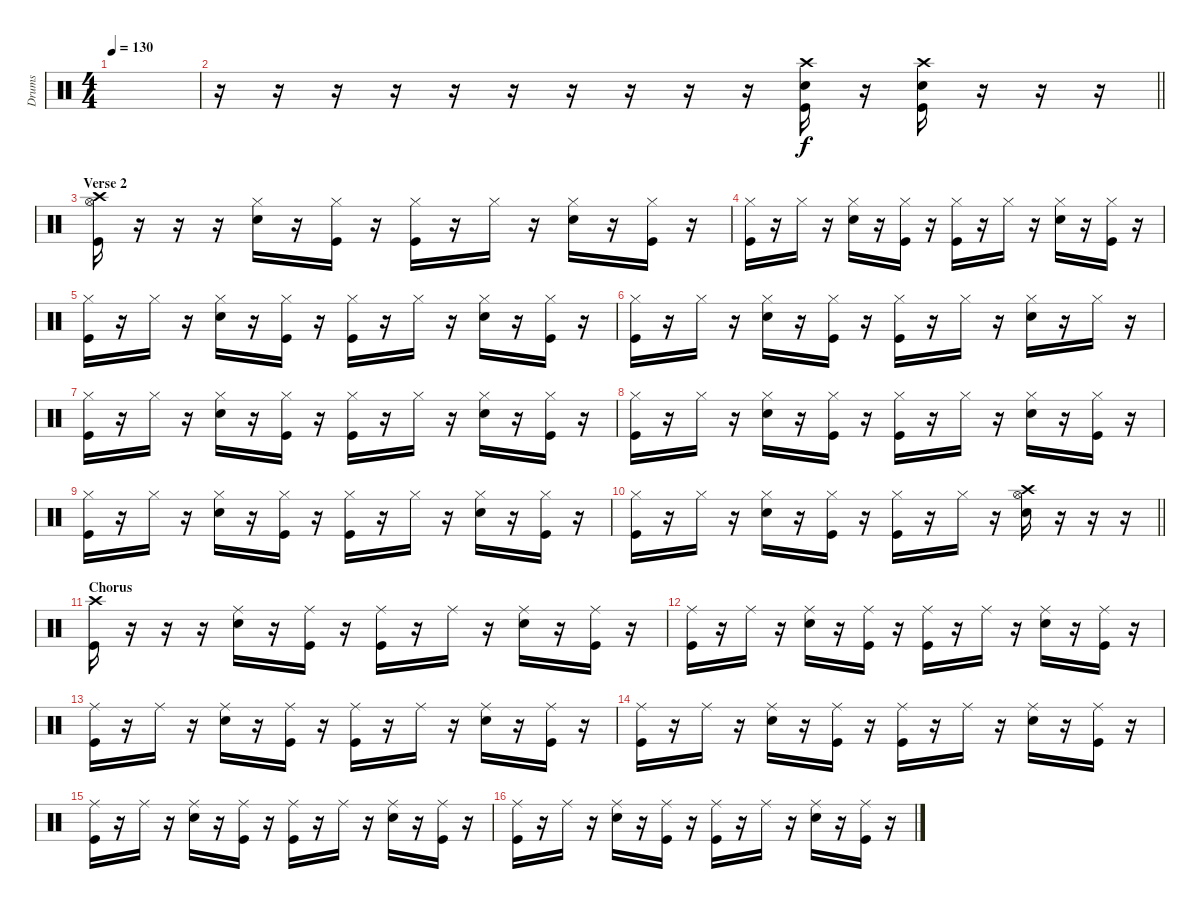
\track ("Drums" "Drums") {instrument percussion}
\staff {score}
\articulation defaults
\ts (4 4)
\tempo 130
\clef neutral
\ks c
|
\barLineRight lightlight
r.16 r.16 r.16 r.16 r.16 r.16 r.16 r.16 r.16 r.16 ("Snare (hit) 2" "Kick (hit)" "Crash high (hit)").16 r.16 ("Snare (hit) 2" "Kick (hit)" "Crash high (hit)").16 r.16 r.16 r.16 |
\section ("" "Verse 2")
("Hi-Hat (open)" "Kick (hit)" "Crash high (hit)").16 r.16 r.16 r.16 ("Hi-Hat (closed)" "Snare (hit) 2").16 r.16 ("Hi-Hat (closed)" "Kick (hit)").16 r.16 ("Hi-Hat (closed)" "Kick (hit)").16 r.16 "Hi-Hat (closed)".16 r.16 ("Hi-Hat (closed)" "Snare (hit) 2").16 r.16 ("Hi-Hat (closed)" "Kick (hit)").16 r.16 |
("Hi-Hat (closed)" "Kick (hit)").16 r.16 "Hi-Hat (closed)".16 r.16 ("Hi-Hat (closed)" "Snare (hit) 2").16 r.16 ("Hi-Hat (closed)" "Kick (hit)").16 r.16 ("Hi-Hat (closed)" "Kick (hit)").16 r.16 "Hi-Hat (closed)".16 r.16 ("Hi-Hat (closed)" "Snare (hit) 2").16 r.16 ("Hi-Hat (closed)" "Kick (hit)").16 r.16 |
("Hi-Hat (closed)" "Kick (hit)").16 r.16 "Hi-Hat (closed)".16 r.16 ("Hi-Hat (closed)" "Snare (hit) 2").16 r.16 ("Hi-Hat (closed)" "Kick (hit)").16 r.16 ("Hi-Hat (closed)" "Kick (hit)").16 r.16 "Hi-Hat (closed)".16 r.16 ("Hi-Hat (closed)" "Snare (hit) 2").16 r.16 ("Hi-Hat (closed)" "Kick (hit)").16 r.16 |
("Hi-Hat (closed)" "Kick (hit)").16 r.16 "Hi-Hat (closed)".16 r.16 ("Hi-Hat (closed)" "Snare (hit) 2").16 r.16 ("Hi-Hat (closed)" "Kick (hit)").16 r.16 ("Hi-Hat (closed)" "Kick (hit)").16 r.16 "Hi-Hat (closed)".16 r.16 ("Hi-Hat (closed)" "Snare (hit) 2").16 r.16 "Hi-Hat (closed)".16 r.16 |
("Hi-Hat (closed)" "Kick (hit)").16 r.16 "Hi-Hat (closed)".16 r.16 ("Hi-Hat (closed)" "Snare (hit) 2").16 r.16 ("Hi-Hat (closed)" "Kick (hit)").16 r.16 ("Hi-Hat (closed)" "Kick (hit)").16 r.16 "Hi-Hat (closed)".16 r.16 ("Hi-Hat (closed)" "Snare (hit) 2").16 r.16 ("Hi-Hat (closed)" "Kick (hit)").16 r.16 |
("Hi-Hat (closed)" "Kick (hit)").16 r.16 "Hi-Hat (closed)".16 r.16 ("Hi-Hat (closed)" "Snare (hit) 2").16 r.16 ("Hi-Hat (closed)" "Kick (hit)").16 r.16 ("Hi-Hat (closed)" "Kick (hit)").16 r.16 "Hi-Hat (closed)".16 r.16 ("Hi-Hat (closed)" "Snare (hit) 2").16 r.16 ("Hi-Hat (closed)" "Kick (hit)").16 r.16 |
("Hi-Hat (closed)" "Kick (hit)").16 r.16 "Hi-Hat (closed)".16 r.16 ("Hi-Hat (closed)" "Snare (hit) 2").16 r.16 ("Hi-Hat (closed)" "Kick (hit)").16 r.16 ("Hi-Hat (closed)" "Kick (hit)").16 r.16 "Hi-Hat (closed)".16 r.16 ("Hi-Hat (closed)" "Snare (hit) 2").16 r.16 ("Hi-Hat (closed)" "Kick (hit)").16 r.16 |
\barLineRight lightlight
("Hi-Hat (closed)" "Kick (hit)").16 r.16 "Hi-Hat (closed)".16 r.16 ("Hi-Hat (closed)" "Snare (hit) 2").16 r.16 ("Hi-Hat (closed)" "Kick (hit)").16 r.16 ("Hi-Hat (closed)" "Kick (hit)").16 r.16 "Hi-Hat (closed)".16 r.16 ("Hi-Hat (open)" "Snare (hit) 2" "Crash high (hit)").16 r.16 r.16 r.16 |
\section ("" "Chorus")
("Kick (hit)" "Crash high (hit)").16 r.16 r.16 r.16 ("Snare (hit) 2" "Ride (middle)").16 r.16 ("Kick (hit)" "Ride (middle)").16 r.16 ("Kick (hit)" "Ride (middle)").16 r.16 "Ride (middle)".16 r.16 ("Snare (hit) 2" "Ride (middle)").16 r.16 ("Kick (hit)" "Ride (middle)").16 r.16 |
("Kick (hit)" "Ride (middle)").16 r.16 "Ride (middle)".16 r.16 ("Snare (hit) 2" "Ride (middle)").16 r.16 ("Kick (hit)" "Ride (middle)").16 r.16 ("Kick (hit)" "Ride (middle)").16 r.16 "Ride (middle)".16 r.16 ("Snare (hit) 2" "Ride (middle)").16 r.16 ("Kick (hit)" "Ride (middle)").16 r.16 |
("Kick (hit)" "Ride (middle)").16 r.16 "Ride (middle)".16 r.16 ("Snare (hit) 2" "Ride (middle)").16 r.16 ("Kick (hit)" "Ride (middle)").16 r.16 ("Kick (hit)" "Ride (middle)").16 r.16 "Ride (middle)".16 r.16 ("Snare (hit) 2" "Ride (middle)").16 r.16 ("Kick (hit)" "Ride (middle)").16 r.16 |
("Kick (hit)" "Ride (middle)").16 r.16 "Ride (middle)".16 r.16 ("Snare (hit) 2" "Ride (middle)").16 r.16 ("Kick (hit)" "Ride (middle)").16 r.16 ("Kick (hit)" "Ride (middle)").16 r.16 "Ride (middle)".16 r.16 ("Snare (hit) 2" "Ride (middle)").16 r.16 ("Kick (hit)" "Ride (middle)").16 r.16 |
("Kick (hit)" "Ride (middle)").16 r.16 "Ride (middle)".16 r.16 ("Snare (hit) 2" "Ride (middle)").16 r.16 ("Kick (hit)" "Ride (middle)").16 r.16 ("Kick (hit)" "Ride (middle)").16 r.16 "Ride (middle)".16 r.16 ("Snare (hit) 2" "Ride (middle)").16 r.16 ("Kick (hit)" "Ride (middle)").16 r.16 |
("Kick (hit)" "Ride (middle)").16 r.16 "Ride (middle)".16 r.16 ("Snare (hit) 2" "Ride (middle)").16 r.16 ("Kick (hit)" "Ride (middle)").16 r.16 ("Kick (hit)" "Ride (middle)").16 r.16 "Ride (middle)".16 r.16 ("Snare (hit) 2" "Ride (middle)").16 r.16 ("Kick (hit)" "Ride (middle)").16 r.16
